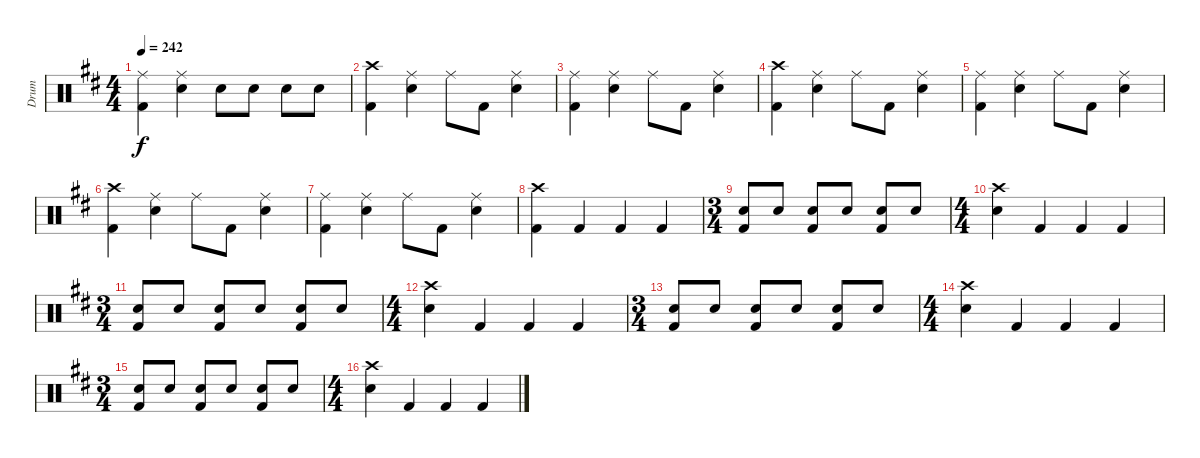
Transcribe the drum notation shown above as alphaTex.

\track ("Drum" "Drum") {instrument percussion}
\staff {score}
\articulation defaults
\ts (4 4)
\tempo 242
\clef neutral
\ks d
("Ride (middle)" "Kick (hit) 2").4{dy f} ("Ride (middle)" "Snare (hit) 2").4 "Snare (hit) 2".8 "Snare (hit) 2".8 "Snare (hit) 2".8 "Snare (hit) 2".8 |
("Crash high (hit)" "Kick (hit) 2").4 ("Ride (middle)" "Snare (hit) 2").4 "Ride (middle)".8 "Kick (hit) 2".8 ("Ride (middle)" "Snare (hit) 2").4 |
("Ride (middle)" "Kick (hit) 2").4 ("Ride (middle)" "Snare (hit) 2").4 "Ride (middle)".8 "Kick (hit) 2".8 ("Ride (middle)" "Snare (hit) 2").4 |
("Crash high (hit)" "Kick (hit) 2").4 ("Ride (middle)" "Snare (hit) 2").4 "Ride (middle)".8 "Kick (hit) 2".8 ("Ride (middle)" "Snare (hit) 2").4 |
("Ride (middle)" "Kick (hit) 2").4 ("Ride (middle)" "Snare (hit) 2").4 "Ride (middle)".8 "Kick (hit) 2".8 ("Ride (middle)" "Snare (hit) 2").4 |
("Crash high (hit)" "Kick (hit) 2").4 ("Ride (middle)" "Snare (hit) 2").4 "Ride (middle)".8 "Kick (hit) 2".8 ("Ride (middle)" "Snare (hit) 2").4 |
("Ride (middle)" "Kick (hit) 2").4 ("Ride (middle)" "Snare (hit) 2").4 "Ride (middle)".8 "Kick (hit) 2".8 ("Ride (middle)" "Snare (hit) 2").4 |
("Crash high (hit)" "Kick (hit) 2").4 "Kick (hit) 2".4 "Kick (hit) 2".4 "Kick (hit) 2".4 |
\ts (3 4)
("Snare (hit) 2" "Kick (hit) 2").8 "Snare (hit) 2".8 ("Snare (hit) 2" "Kick (hit) 2").8 "Snare (hit) 2".8 ("Snare (hit) 2" "Kick (hit) 2").8 "Snare (hit) 2".8 |
\ts (4 4)
("Crash high (hit)" "Snare (hit) 2").4 "Kick (hit) 2".4 "Kick (hit) 2".4 "Kick (hit) 2".4 |
\ts (3 4)
("Snare (hit) 2" "Kick (hit) 2").8 "Snare (hit) 2".8 ("Snare (hit) 2" "Kick (hit) 2").8 "Snare (hit) 2".8 ("Snare (hit) 2" "Kick (hit) 2").8 "Snare (hit) 2".8 |
\ts (4 4)
("Crash high (hit)" "Snare (hit) 2").4 "Kick (hit) 2".4 "Kick (hit) 2".4 "Kick (hit) 2".4 |
\ts (3 4)
("Snare (hit) 2" "Kick (hit) 2").8 "Snare (hit) 2".8 ("Snare (hit) 2" "Kick (hit) 2").8 "Snare (hit) 2".8 ("Snare (hit) 2" "Kick (hit) 2").8 "Snare (hit) 2".8 |
\ts (4 4)
("Crash high (hit)" "Snare (hit) 2").4 "Kick (hit) 2".4 "Kick (hit) 2".4 "Kick (hit) 2".4 |
\ts (3 4)
("Snare (hit) 2" "Kick (hit) 2").8 "Snare (hit) 2".8 ("Snare (hit) 2" "Kick (hit) 2").8 "Snare (hit) 2".8 ("Snare (hit) 2" "Kick (hit) 2").8 "Snare (hit) 2".8 |
\ts (4 4)
("Crash high (hit)" "Snare (hit) 2").4 "Kick (hit) 2".4 "Kick (hit) 2".4 "Kick (hit) 2".4
